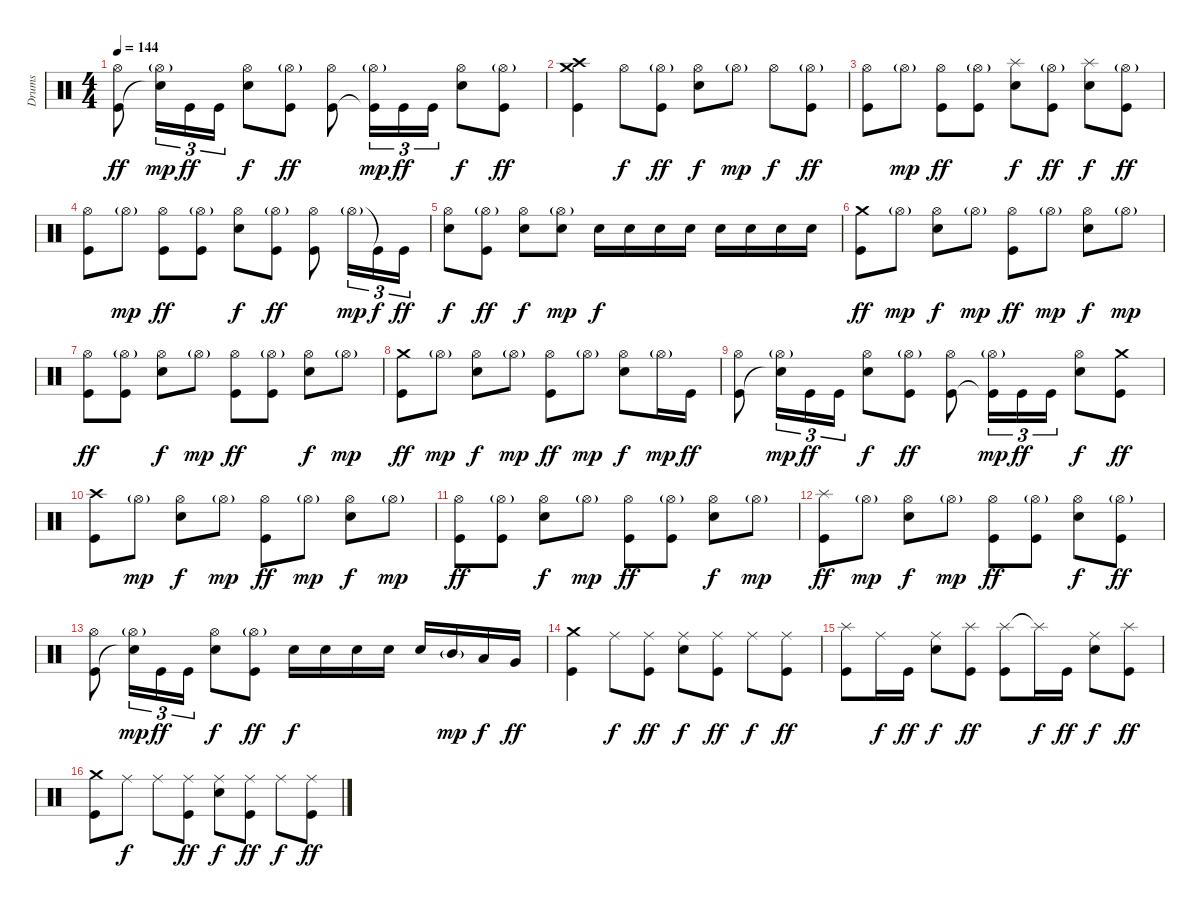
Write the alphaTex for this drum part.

\track ("Drums" "Drums") {instrument percussion}
\staff {score}
\articulation defaults
\ts (4 4)
\tempo 144
\clef neutral
\ks c
("Hi-Hat (open)" "Kick (hit)").8{dy ff} ("Hi-Hat (open)"{g} "Snare (hit)"{t}).16{tu (3 2) dy mp} "Kick (hit)".16{tu (3 2) dy ff} "Kick (hit)".16{tu (3 2)} ("Hi-Hat (open)" "Snare (hit) 2").8{dy f} ("Hi-Hat (open)"{g} "Kick (hit)").8{dy ff} ("Hi-Hat (open)" "Kick (hit)").8 ("Hi-Hat (open)"{g} "Kick (hit)"{t}).16{tu (3 2) dy mp} "Kick (hit)".16{tu (3 2) dy ff} "Kick (hit)".16{tu (3 2)} ("Hi-Hat (open)" "Snare (hit) 2").8{dy f} ("Hi-Hat (open)"{g} "Kick (hit)").8{dy ff} |
("Crash high (hit)" "Crash medium (hit)" "Kick (hit)").4 "Hi-Hat (open)".8{dy f} ("Hi-Hat (open)"{g} "Kick (hit)").8{dy ff} ("Hi-Hat (open)" "Snare (hit) 2").8{dy f} "Hi-Hat (open)"{g}.8{dy mp} "Hi-Hat (open)".8{dy f} ("Hi-Hat (open)"{g} "Kick (hit)").8{dy ff} |
("Hi-Hat (open)" "Kick (hit)").8 "Hi-Hat (open)"{g}.8{dy mp} ("Hi-Hat (open)" "Kick (hit)").8{dy ff} ("Hi-Hat (open)"{g} "Kick (hit)").8 ("Splash (hit)" "Snare (hit) 2").8{dy f} ("Hi-Hat (open)"{g} "Kick (hit)").8{dy ff} ("Splash (hit)" "Snare (hit) 2").8{dy f} ("Hi-Hat (open)"{g} "Kick (hit)").8{dy ff} |
("Hi-Hat (open)" "Kick (hit)").8 "Hi-Hat (open)"{g}.8{dy mp} ("Hi-Hat (open)" "Kick (hit)").8{dy ff} ("Hi-Hat (open)"{g} "Kick (hit)").8 ("Hi-Hat (open)" "Snare (hit) 2").8{dy f} ("Hi-Hat (open)"{g} "Kick (hit)").8{dy ff} ("Hi-Hat (open)" "Kick (hit)").8 "Hi-Hat (open)"{g}.16{tu (3 2) dy mp} "Kick (hit)"{t}.16{tu (3 2) dy f} "Kick (hit)".16{tu (3 2) dy ff} |
("Hi-Hat (open)" "Snare (hit) 2").8{dy f} ("Hi-Hat (open)"{g} "Kick (hit)").8{dy ff} ("Hi-Hat (open)" "Snare (hit) 2").8{dy f} ("Hi-Hat (open)"{g} "Snare (hit) 2").8{dy mp} "Snare (hit) 2".16{dy f} "Snare (hit) 2".16 "Snare (hit) 2".16 "Snare (hit) 2".16 "Snare (hit) 2".16 "Snare (hit) 2".16 "Snare (hit) 2".16 "Snare (hit) 2".16 |
("Crash medium (hit)" "Kick (hit)").8{dy ff} "Hi-Hat (open)"{g}.8{dy mp} ("Hi-Hat (open)" "Snare (hit) 2").8{dy f} "Hi-Hat (open)"{g}.8{dy mp} ("Hi-Hat (open)" "Kick (hit)").8{dy ff} "Hi-Hat (open)"{g}.8{dy mp} ("Hi-Hat (open)" "Snare (hit) 2").8{dy f} "Hi-Hat (open)"{g}.8{dy mp} |
("Hi-Hat (open)" "Kick (hit)").8{dy ff} ("Hi-Hat (open)"{g} "Kick (hit)").8 ("Hi-Hat (open)" "Snare (hit) 2").8{dy f} "Hi-Hat (open)"{g}.8{dy mp} ("Hi-Hat (open)" "Kick (hit)").8{dy ff} ("Hi-Hat (open)"{g} "Kick (hit)").8 ("Hi-Hat (open)" "Snare (hit) 2").8{dy f} "Hi-Hat (open)"{g}.8{dy mp} |
("Crash medium (hit)" "Kick (hit)").8{dy ff} "Hi-Hat (open)"{g}.8{dy mp} ("Hi-Hat (open)" "Snare (hit) 2").8{dy f} "Hi-Hat (open)"{g}.8{dy mp} ("Hi-Hat (open)" "Kick (hit)").8{dy ff} "Hi-Hat (open)"{g}.8{dy mp} ("Hi-Hat (open)" "Snare (hit) 2").8{dy f} "Hi-Hat (open)"{g}.16{dy mp} "Kick (hit)".16{dy ff} |
("Hi-Hat (open)" "Kick (hit)").8 ("Hi-Hat (open)"{g} "Snare (hit)"{t}).16{tu (3 2) dy mp} "Kick (hit)".16{tu (3 2) dy ff} "Kick (hit)".16{tu (3 2)} ("Hi-Hat (open)" "Snare (hit) 2").8{dy f} ("Hi-Hat (open)"{g} "Kick (hit)").8{dy ff} ("Hi-Hat (open)" "Kick (hit)").8 ("Hi-Hat (open)"{g} "Kick (hit)"{t}).16{tu (3 2) dy mp} "Kick (hit)".16{tu (3 2) dy ff} "Kick (hit)".16{tu (3 2)} ("Hi-Hat (open)" "Snare (hit) 2").8{dy f} ("Crash medium (hit)" "Kick (hit)").8{dy ff} |
("Crash high (hit)" "Kick (hit)").8 "Hi-Hat (open)"{g}.8{dy mp} ("Hi-Hat (open)" "Snare (hit) 2").8{dy f} "Hi-Hat (open)"{g}.8{dy mp} ("Hi-Hat (open)" "Kick (hit)").8{dy ff} "Hi-Hat (open)"{g}.8{dy mp} ("Hi-Hat (open)" "Snare (hit) 2").8{dy f} "Hi-Hat (open)"{g}.8{dy mp} |
("Hi-Hat (open)" "Kick (hit)").8{dy ff} ("Hi-Hat (open)"{g} "Kick (hit)").8 ("Hi-Hat (open)" "Snare (hit) 2").8{dy f} "Hi-Hat (open)"{g}.8{dy mp} ("Hi-Hat (open)" "Kick (hit)").8{dy ff} ("Hi-Hat (open)"{g} "Kick (hit)").8 ("Hi-Hat (open)" "Snare (hit) 2").8{dy f} "Hi-Hat (open)"{g}.8{dy mp} |
("Splash (hit)" "Kick (hit)").8{dy ff} "Hi-Hat (open)"{g}.8{dy mp} ("Hi-Hat (open)" "Snare (hit) 2").8{dy f} "Hi-Hat (open)"{g}.8{dy mp} ("Hi-Hat (open)" "Kick (hit)").8{dy ff} ("Hi-Hat (open)"{g} "Kick (hit)").8 ("Hi-Hat (open)" "Snare (hit) 2").8{dy f} ("Hi-Hat (open)"{g} "Kick (hit)").8{dy ff} |
("Hi-Hat (open)" "Kick (hit)").8 ("Hi-Hat (open)"{g} "Snare (hit)"{t}).16{tu (3 2) dy mp} "Kick (hit)".16{tu (3 2) dy ff} "Kick (hit)".16{tu (3 2)} ("Hi-Hat (open)" "Snare (hit) 2").8{dy f} ("Hi-Hat (open)"{g} "Kick (hit)").8{dy ff} "Snare (hit) 2".16{dy f} "Snare (hit) 2".16 "Snare (hit) 2".16 "Snare (hit) 2".16 "Snare (hit) 2".16 "Mid Tom (hit)"{g}.16{dy mp} "Low Tom (hit)".16{dy f} "Very Low Tom (hit)".16{dy ff} |
("Crash medium (hit)" "Kick (hit)").4 "Ride (middle)".8{dy f} ("Ride (middle)" "Kick (hit)").8{dy ff} ("Ride (middle)" "Snare (hit) 2").8{dy f} ("Ride (middle)" "Kick (hit)").8{dy ff} "Ride (middle)".8{dy f} ("Ride (middle)" "Kick (hit)").8{dy ff} |
("Splash (hit)" "Kick (hit)").8 "Ride (middle)".16{dy f} "Kick (hit)".16{dy ff} ("Ride (middle)" "Snare (hit) 2").8{dy f} ("Splash (hit)" "Kick (hit)").8{dy ff} ("Splash (hit)" "Kick (hit)").8 "Splash (hit)"{t}.16{dy f} "Kick (hit)".16{dy ff} ("Ride (middle)" "Snare (hit) 2").8{dy f} ("Splash (hit)" "Kick (hit)").8{dy ff} |
("Crash medium (hit)" "Kick (hit)").8 "Ride (middle)".8{dy f} "Ride (middle)".8 ("Ride (middle)" "Kick (hit)").8{dy ff} ("Ride (middle)" "Snare (hit) 2").8{dy f} ("Ride (middle)" "Kick (hit)").8{dy ff} "Ride (middle)".8{dy f} ("Ride (middle)" "Kick (hit)").8{dy ff}
